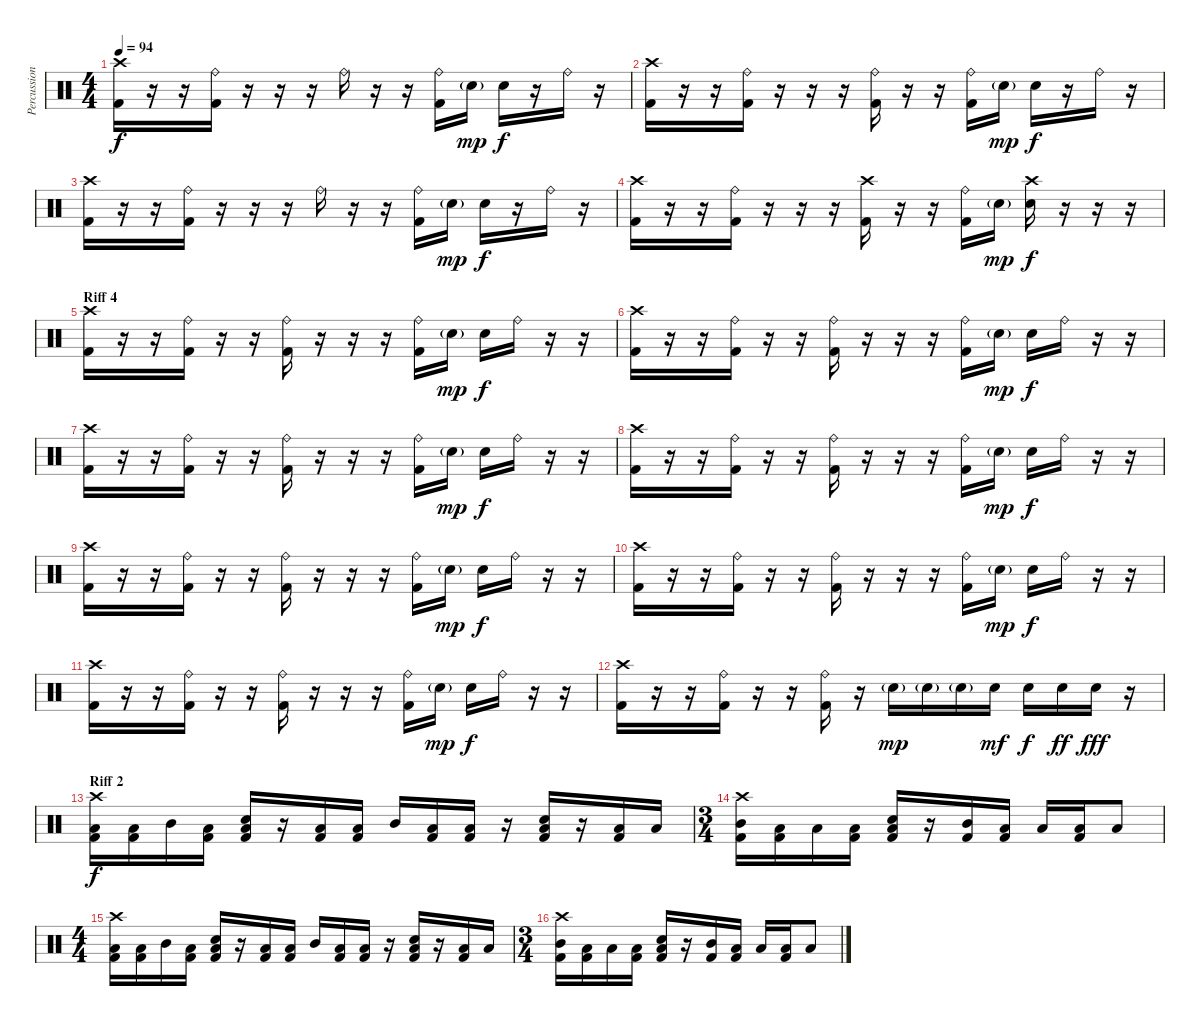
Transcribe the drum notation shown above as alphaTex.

\track ("Percussion" "Percussion") {instrument percussion}
\staff {score}
\articulation defaults
\ts (4 4)
\tempo 94
\clef neutral
\ks c
("Crash high (hit)" "Kick (hit) 2").16{dy f} r.16 r.16 ("Ride (bell)" "Kick (hit) 2").16 r.16 r.16 r.16 "Ride (bell)".16 r.16 r.16 ("Ride (bell)" "Kick (hit) 2").16 "Electric Snare (hit)"{g}.16{dy mp} "Electric Snare (hit)".16{dy f} r.16 "Ride (bell)".16 r.16 |
("Crash high (hit)" "Kick (hit) 2").16 r.16 r.16 ("Ride (bell)" "Kick (hit) 2").16 r.16 r.16 r.16 ("Ride (bell)" "Kick (hit) 2").16 r.16 r.16 ("Ride (bell)" "Kick (hit) 2").16 "Electric Snare (hit)"{g}.16{dy mp} "Electric Snare (hit)".16{dy f} r.16 "Ride (bell)".16 r.16 |
("Crash high (hit)" "Kick (hit) 2").16 r.16 r.16 ("Ride (bell)" "Kick (hit) 2").16 r.16 r.16 r.16 "Ride (bell)".16 r.16 r.16 ("Ride (bell)" "Kick (hit) 2").16 "Electric Snare (hit)"{g}.16{dy mp} "Electric Snare (hit)".16{dy f} r.16 "Ride (bell)".16 r.16 |
("Crash high (hit)" "Kick (hit) 2").16 r.16 r.16 ("Ride (bell)" "Kick (hit) 2").16 r.16 r.16 r.16 ("Crash high (hit)" "Kick (hit) 2").16 r.16 r.16 ("Ride (bell)" "Kick (hit) 2").16 "Electric Snare (hit)"{g}.16{dy mp} ("Crash high (hit)" "Electric Snare (hit)").16{dy f} r.16 r.16 r.16 |
\section ("" "Riff 4")
("Crash high (hit)" "Kick (hit) 2").16 r.16 r.16 ("Ride (bell)" "Kick (hit) 2").16 r.16 r.16 ("Ride (bell)" "Kick (hit) 2").16 r.16 r.16 r.16 ("Ride (bell)" "Kick (hit) 2").16 "Electric Snare (hit)"{g}.16{dy mp} "Electric Snare (hit)".16{dy f} "Ride (bell)".16 r.16 r.16 |
("Crash high (hit)" "Kick (hit) 2").16 r.16 r.16 ("Ride (bell)" "Kick (hit) 2").16 r.16 r.16 ("Ride (bell)" "Kick (hit) 2").16 r.16 r.16 r.16 ("Ride (bell)" "Kick (hit) 2").16 "Electric Snare (hit)"{g}.16{dy mp} "Electric Snare (hit)".16{dy f} "Ride (bell)".16 r.16 r.16 |
("Crash high (hit)" "Kick (hit) 2").16 r.16 r.16 ("Ride (bell)" "Kick (hit) 2").16 r.16 r.16 ("Ride (bell)" "Kick (hit) 2").16 r.16 r.16 r.16 ("Ride (bell)" "Kick (hit) 2").16 "Electric Snare (hit)"{g}.16{dy mp} "Electric Snare (hit)".16{dy f} "Ride (bell)".16 r.16 r.16 |
("Crash high (hit)" "Kick (hit) 2").16 r.16 r.16 ("Ride (bell)" "Kick (hit) 2").16 r.16 r.16 ("Ride (bell)" "Kick (hit) 2").16 r.16 r.16 r.16 ("Ride (bell)" "Kick (hit) 2").16 "Electric Snare (hit)"{g}.16{dy mp} "Electric Snare (hit)".16{dy f} "Ride (bell)".16 r.16 r.16 |
("Crash high (hit)" "Kick (hit) 2").16 r.16 r.16 ("Ride (bell)" "Kick (hit) 2").16 r.16 r.16 ("Ride (bell)" "Kick (hit) 2").16 r.16 r.16 r.16 ("Ride (bell)" "Kick (hit) 2").16 "Electric Snare (hit)"{g}.16{dy mp} "Electric Snare (hit)".16{dy f} "Ride (bell)".16 r.16 r.16 |
("Crash high (hit)" "Kick (hit) 2").16 r.16 r.16 ("Ride (bell)" "Kick (hit) 2").16 r.16 r.16 ("Ride (bell)" "Kick (hit) 2").16 r.16 r.16 r.16 ("Ride (bell)" "Kick (hit) 2").16 "Electric Snare (hit)"{g}.16{dy mp} "Electric Snare (hit)".16{dy f} "Ride (bell)".16 r.16 r.16 |
("Crash high (hit)" "Kick (hit) 2").16 r.16 r.16 ("Ride (bell)" "Kick (hit) 2").16 r.16 r.16 ("Ride (bell)" "Kick (hit) 2").16 r.16 r.16 r.16 ("Ride (bell)" "Kick (hit) 2").16 "Electric Snare (hit)"{g}.16{dy mp} "Electric Snare (hit)".16{dy f} "Ride (bell)".16 r.16 r.16 |
("Crash high (hit)" "Kick (hit) 2").16 r.16 r.16 ("Ride (bell)" "Kick (hit) 2").16 r.16 r.16 ("Ride (bell)" "Kick (hit) 2").16 r.16 "Electric Snare (hit)"{g}.16{dy mp} "Electric Snare (hit)"{g}.16 "Electric Snare (hit)"{g}.16 "Electric Snare (hit)".16{dy mf} "Electric Snare (hit)".16{dy f} "Electric Snare (hit)".16{dy ff} "Electric Snare (hit)".16{dy fff} r.16 |
\section ("" "Riff 2")
("Crash high (hit)" "Low Tom (hit)" "Kick (hit) 2").16{dy f} ("Low Floor Tom (hit)" "Kick (hit) 2").16 "Mid Tom (hit)".16 ("Low Tom (hit)" "Kick (hit) 2").16 ("Electric Snare (hit)" "Low Floor Tom (hit)" "Kick (hit) 2").16 r.16 ("Low Tom (hit)" "Kick (hit) 2").16 ("Low Floor Tom (hit)" "Kick (hit) 2").16 "Mid Tom (hit)".16 ("Low Tom (hit)" "Kick (hit) 2").16 ("Low Floor Tom (hit)" "Kick (hit) 2").16 r.16 ("Electric Snare (hit)" "Low Tom (hit)" "Kick (hit) 2").16 r.16 ("Low Tom (hit)" "Kick (hit) 2").16 "Low Floor Tom (hit)".16 |
\ts (3 4)
("Crash high (hit)" "Mid Tom (hit)" "Kick (hit) 2").16 ("Low Tom (hit)" "Kick (hit) 2").16 "Low Floor Tom (hit)".16 ("Low Tom (hit)" "Kick (hit) 2").16 ("Electric Snare (hit)" "Low Floor Tom (hit)" "Kick (hit) 2").16 r.16 ("Mid Tom (hit)" "Kick (hit) 2").16 ("Low Tom (hit)" "Kick (hit) 2").16 "Low Tom (hit)".16 ("Low Tom (hit)" "Kick (hit) 2").16 "Low Floor Tom (hit)".8 |
\ts (4 4)
("Crash high (hit)" "Low Tom (hit)" "Kick (hit) 2").16 ("Low Floor Tom (hit)" "Kick (hit) 2").16 "Mid Tom (hit)".16 ("Low Tom (hit)" "Kick (hit) 2").16 ("Electric Snare (hit)" "Low Floor Tom (hit)" "Kick (hit) 2").16 r.16 ("Low Tom (hit)" "Kick (hit) 2").16 ("Low Floor Tom (hit)" "Kick (hit) 2").16 "Mid Tom (hit)".16 ("Low Tom (hit)" "Kick (hit) 2").16 ("Low Floor Tom (hit)" "Kick (hit) 2").16 r.16 ("Electric Snare (hit)" "Low Tom (hit)" "Kick (hit) 2").16 r.16 ("Low Tom (hit)" "Kick (hit) 2").16 "Low Floor Tom (hit)".16 |
\ts (3 4)
("Crash high (hit)" "Mid Tom (hit)" "Kick (hit) 2").16 ("Low Tom (hit)" "Kick (hit) 2").16 "Low Floor Tom (hit)".16 ("Low Tom (hit)" "Kick (hit) 2").16 ("Electric Snare (hit)" "Low Floor Tom (hit)" "Kick (hit) 2").16 r.16 ("Mid Tom (hit)" "Kick (hit) 2").16 ("Low Tom (hit)" "Kick (hit) 2").16 "Low Tom (hit)".16 ("Low Tom (hit)" "Kick (hit) 2").16 "Low Floor Tom (hit)".8
